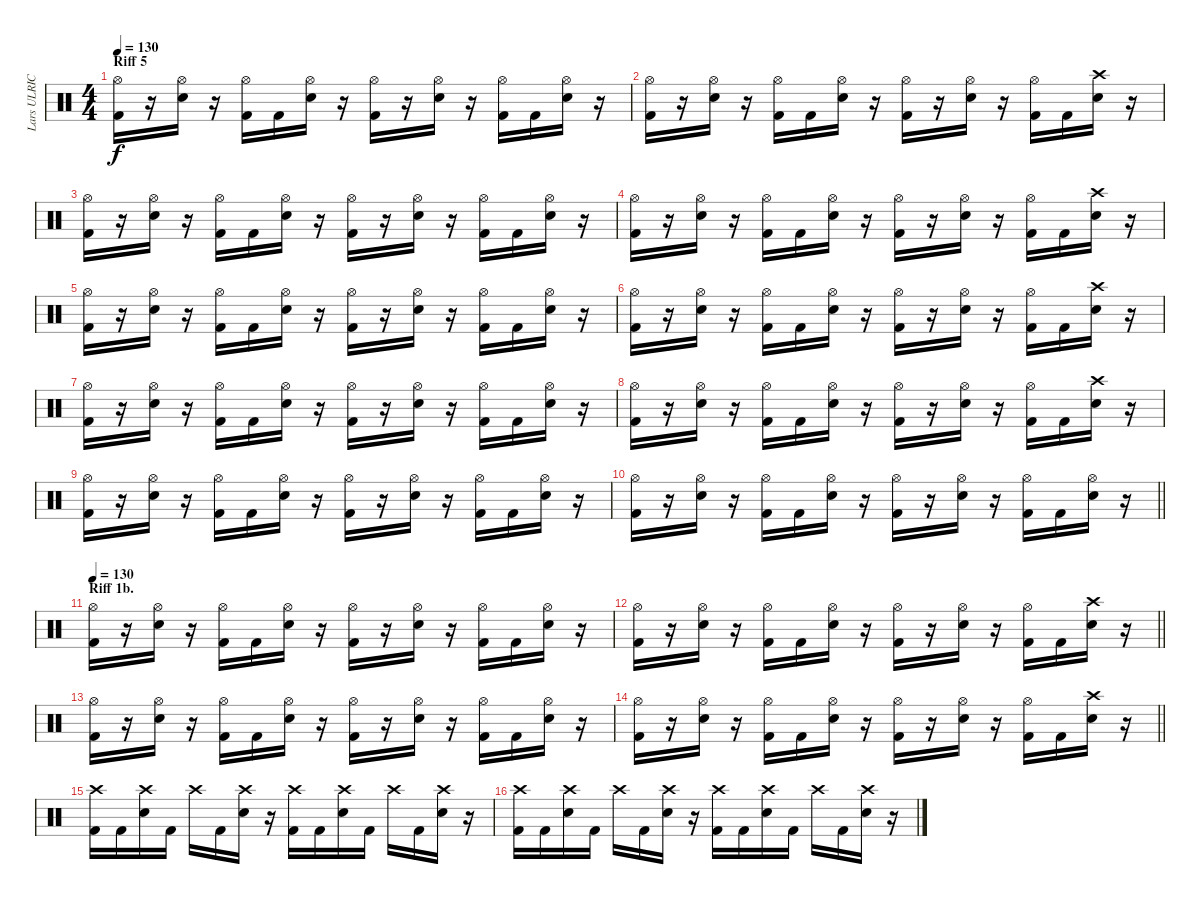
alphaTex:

\track ("Lars ULRICH" "Lars ULRIC") {instrument percussion}
\staff {score}
\articulation defaults
\ts (4 4)
\section ("" "Riff 5")
\tempo 130
\clef neutral
\ks c
("Hi-Hat (open)" "Kick (hit) 2").16{dy f} r.16 ("Hi-Hat (open)" "Snare (hit) 2").16 r.16 ("Hi-Hat (open)" "Kick (hit) 2").16 "Kick (hit) 2".16 ("Hi-Hat (open)" "Snare (hit) 2").16 r.16 ("Hi-Hat (open)" "Kick (hit) 2").16 r.16 ("Hi-Hat (open)" "Snare (hit) 2").16 r.16 ("Hi-Hat (open)" "Kick (hit) 2").16 "Kick (hit) 2".16 ("Hi-Hat (open)" "Snare (hit) 2").16 r.16 |
("Hi-Hat (open)" "Kick (hit) 2").16 r.16 ("Hi-Hat (open)" "Snare (hit) 2").16 r.16 ("Hi-Hat (open)" "Kick (hit) 2").16 "Kick (hit) 2".16 ("Hi-Hat (open)" "Snare (hit) 2").16 r.16 ("Hi-Hat (open)" "Kick (hit) 2").16 r.16 ("Hi-Hat (open)" "Snare (hit) 2").16 r.16 ("Hi-Hat (open)" "Kick (hit) 2").16 "Kick (hit) 2".16 ("Crash high (hit)" "Snare (hit) 2").16 r.16 |
("Hi-Hat (open)" "Kick (hit) 2").16 r.16 ("Hi-Hat (open)" "Snare (hit) 2").16 r.16 ("Hi-Hat (open)" "Kick (hit) 2").16 "Kick (hit) 2".16 ("Hi-Hat (open)" "Snare (hit) 2").16 r.16 ("Hi-Hat (open)" "Kick (hit) 2").16 r.16 ("Hi-Hat (open)" "Snare (hit) 2").16 r.16 ("Hi-Hat (open)" "Kick (hit) 2").16 "Kick (hit) 2".16 ("Hi-Hat (open)" "Snare (hit) 2").16 r.16 |
("Hi-Hat (open)" "Kick (hit) 2").16 r.16 ("Hi-Hat (open)" "Snare (hit) 2").16 r.16 ("Hi-Hat (open)" "Kick (hit) 2").16 "Kick (hit) 2".16 ("Hi-Hat (open)" "Snare (hit) 2").16 r.16 ("Hi-Hat (open)" "Kick (hit) 2").16 r.16 ("Hi-Hat (open)" "Snare (hit) 2").16 r.16 ("Hi-Hat (open)" "Kick (hit) 2").16 "Kick (hit) 2".16 ("Crash high (hit)" "Snare (hit) 2").16 r.16 |
("Hi-Hat (open)" "Kick (hit) 2").16 r.16 ("Hi-Hat (open)" "Snare (hit) 2").16 r.16 ("Hi-Hat (open)" "Kick (hit) 2").16 "Kick (hit) 2".16 ("Hi-Hat (open)" "Snare (hit) 2").16 r.16 ("Hi-Hat (open)" "Kick (hit) 2").16 r.16 ("Hi-Hat (open)" "Snare (hit) 2").16 r.16 ("Hi-Hat (open)" "Kick (hit) 2").16 "Kick (hit) 2".16 ("Hi-Hat (open)" "Snare (hit) 2").16 r.16 |
("Hi-Hat (open)" "Kick (hit) 2").16 r.16 ("Hi-Hat (open)" "Snare (hit) 2").16 r.16 ("Hi-Hat (open)" "Kick (hit) 2").16 "Kick (hit) 2".16 ("Hi-Hat (open)" "Snare (hit) 2").16 r.16 ("Hi-Hat (open)" "Kick (hit) 2").16 r.16 ("Hi-Hat (open)" "Snare (hit) 2").16 r.16 ("Hi-Hat (open)" "Kick (hit) 2").16 "Kick (hit) 2".16 ("Crash high (hit)" "Snare (hit) 2").16 r.16 |
("Hi-Hat (open)" "Kick (hit) 2").16 r.16 ("Hi-Hat (open)" "Snare (hit) 2").16 r.16 ("Hi-Hat (open)" "Kick (hit) 2").16 "Kick (hit) 2".16 ("Hi-Hat (open)" "Snare (hit) 2").16 r.16 ("Hi-Hat (open)" "Kick (hit) 2").16 r.16 ("Hi-Hat (open)" "Snare (hit) 2").16 r.16 ("Hi-Hat (open)" "Kick (hit) 2").16 "Kick (hit) 2".16 ("Hi-Hat (open)" "Snare (hit) 2").16 r.16 |
("Hi-Hat (open)" "Kick (hit) 2").16 r.16 ("Hi-Hat (open)" "Snare (hit) 2").16 r.16 ("Hi-Hat (open)" "Kick (hit) 2").16 "Kick (hit) 2".16 ("Hi-Hat (open)" "Snare (hit) 2").16 r.16 ("Hi-Hat (open)" "Kick (hit) 2").16 r.16 ("Hi-Hat (open)" "Snare (hit) 2").16 r.16 ("Hi-Hat (open)" "Kick (hit) 2").16 "Kick (hit) 2".16 ("Crash high (hit)" "Snare (hit) 2").16 r.16 |
("Hi-Hat (open)" "Kick (hit) 2").16 r.16 ("Hi-Hat (open)" "Snare (hit) 2").16 r.16 ("Hi-Hat (open)" "Kick (hit) 2").16 "Kick (hit) 2".16 ("Hi-Hat (open)" "Snare (hit) 2").16 r.16 ("Hi-Hat (open)" "Kick (hit) 2").16 r.16 ("Hi-Hat (open)" "Snare (hit) 2").16 r.16 ("Hi-Hat (open)" "Kick (hit) 2").16 "Kick (hit) 2".16 ("Hi-Hat (open)" "Snare (hit) 2").16 r.16 |
\barLineRight lightlight
("Hi-Hat (open)" "Kick (hit) 2").16 r.16 ("Hi-Hat (open)" "Snare (hit) 2").16 r.16 ("Hi-Hat (open)" "Kick (hit) 2").16 "Kick (hit) 2".16 ("Hi-Hat (open)" "Snare (hit) 2").16 r.16 ("Hi-Hat (open)" "Kick (hit) 2").16 r.16 ("Hi-Hat (open)" "Snare (hit) 2").16 r.16 ("Hi-Hat (open)" "Kick (hit) 2").16 "Kick (hit) 2".16 ("Hi-Hat (open)" "Snare (hit) 2").16 r.16 |
\section ("" "Riff 1b.")
\tempo 130
("Hi-Hat (open)" "Kick (hit) 2").16 r.16 ("Hi-Hat (open)" "Snare (hit) 2").16 r.16 ("Hi-Hat (open)" "Kick (hit) 2").16 "Kick (hit) 2".16 ("Hi-Hat (open)" "Snare (hit) 2").16 r.16 ("Hi-Hat (open)" "Kick (hit) 2").16 r.16 ("Hi-Hat (open)" "Snare (hit) 2").16 r.16 ("Hi-Hat (open)" "Kick (hit) 2").16 "Kick (hit) 2".16 ("Hi-Hat (open)" "Snare (hit) 2").16 r.16 |
\barLineRight lightlight
("Hi-Hat (open)" "Kick (hit) 2").16 r.16 ("Hi-Hat (open)" "Snare (hit) 2").16 r.16 ("Hi-Hat (open)" "Kick (hit) 2").16 "Kick (hit) 2".16 ("Hi-Hat (open)" "Snare (hit) 2").16 r.16 ("Hi-Hat (open)" "Kick (hit) 2").16 r.16 ("Hi-Hat (open)" "Snare (hit) 2").16 r.16 ("Hi-Hat (open)" "Kick (hit) 2").16 "Kick (hit) 2".16 ("Crash high (hit)" "Snare (hit) 2").16 r.16 |
("Hi-Hat (open)" "Kick (hit) 2").16 r.16 ("Hi-Hat (open)" "Snare (hit) 2").16 r.16 ("Hi-Hat (open)" "Kick (hit) 2").16 "Kick (hit) 2".16 ("Hi-Hat (open)" "Snare (hit) 2").16 r.16 ("Hi-Hat (open)" "Kick (hit) 2").16 r.16 ("Hi-Hat (open)" "Snare (hit) 2").16 r.16 ("Hi-Hat (open)" "Kick (hit) 2").16 "Kick (hit) 2".16 ("Hi-Hat (open)" "Snare (hit) 2").16 r.16 |
\barLineRight lightlight
("Hi-Hat (open)" "Kick (hit) 2").16 r.16 ("Hi-Hat (open)" "Snare (hit) 2").16 r.16 ("Hi-Hat (open)" "Kick (hit) 2").16 "Kick (hit) 2".16 ("Hi-Hat (open)" "Snare (hit) 2").16 r.16 ("Hi-Hat (open)" "Kick (hit) 2").16 r.16 ("Hi-Hat (open)" "Snare (hit) 2").16 r.16 ("Hi-Hat (open)" "Kick (hit) 2").16 "Kick (hit) 2".16 ("Crash high (hit)" "Snare (hit) 2").16 r.16 |
("Crash high (hit)" "Kick (hit) 2").16 "Kick (hit) 2".16 ("Crash high (hit)" "Snare (hit) 2").16 "Kick (hit) 2".16 "Crash high (hit)".16 "Kick (hit) 2".16 ("Crash high (hit)" "Snare (hit) 2").16 r.16 ("Crash high (hit)" "Kick (hit) 2").16 "Kick (hit) 2".16 ("Crash high (hit)" "Snare (hit) 2").16 "Kick (hit) 2".16 "Crash high (hit)".16 "Kick (hit) 2".16 ("Crash high (hit)" "Snare (hit) 2").16 r.16 |
("Crash high (hit)" "Kick (hit) 2").16 "Kick (hit) 2".16 ("Crash high (hit)" "Snare (hit) 2").16 "Kick (hit) 2".16 "Crash high (hit)".16 "Kick (hit) 2".16 ("Crash high (hit)" "Snare (hit) 2").16 r.16 ("Crash high (hit)" "Kick (hit) 2").16 "Kick (hit) 2".16 ("Crash high (hit)" "Snare (hit) 2").16 "Kick (hit) 2".16 "Crash high (hit)".16 "Kick (hit) 2".16 ("Crash high (hit)" "Snare (hit) 2").16 r.16
